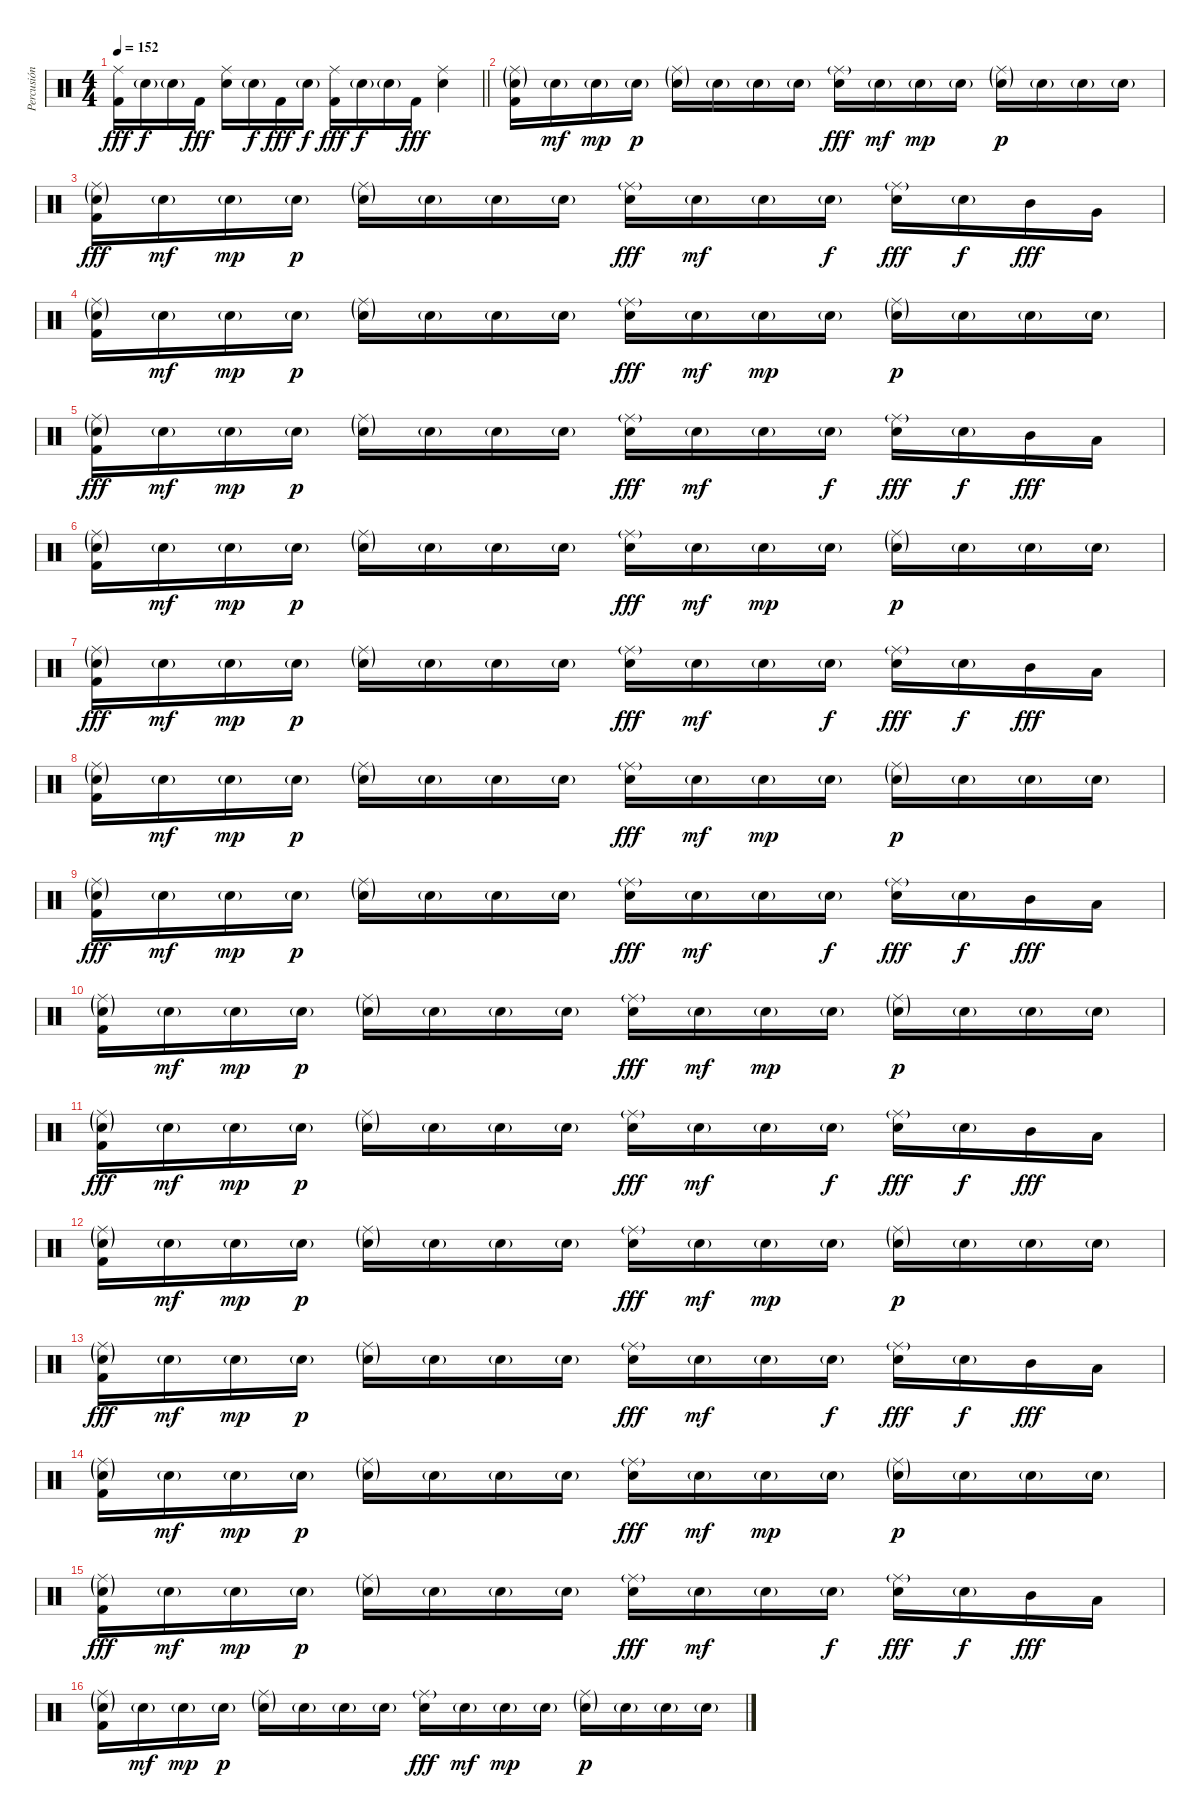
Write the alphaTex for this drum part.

\track ("Percusión" "Percusión") {instrument percussion}
\staff {score}
\articulation defaults
\ts (4 4)
\tempo 152
\clef neutral
\barLineRight lightlight
\ks c
("Ride (middle)" "Kick (hit) 2").16{dy fff} "Snare (hit) 2"{g}.16{dy f} "Snare (hit) 2"{g}.16 "Kick (hit) 2".16{dy fff} ("Ride (middle)" "Snare (hit) 2").16 "Snare (hit) 2"{g}.16{dy f} "Kick (hit) 2".16{dy fff} "Snare (hit) 2"{g}.16{dy f} ("Ride (middle)" "Kick (hit) 2").16{dy fff} "Snare (hit) 2"{g}.16{dy f} "Snare (hit) 2"{g}.16 "Kick (hit) 2".16{dy fff} ("Ride (middle)" "Snare (hit) 2").4 |
("Ride (middle)"{g} "Snare (hit) 2"{g} "Kick (hit) 2").16 "Snare (hit) 2"{g}.16{dy mf} "Snare (hit) 2"{g}.16{dy mp} "Snare (hit) 2"{g}.16{dy p} ("Ride (middle)"{g} "Snare (hit) 2"{g}).16 "Snare (hit) 2"{g}.16 "Snare (hit) 2"{g}.16 "Snare (hit) 2"{g}.16 ("Ride (middle)"{g} "Snare (hit) 2").16{dy fff} "Snare (hit) 2"{g}.16{dy mf} "Snare (hit) 2"{g}.16{dy mp} "Snare (hit) 2"{g}.16 ("Ride (middle)"{g} "Snare (hit) 2"{g}).16{dy p} "Snare (hit) 2"{g}.16 "Snare (hit) 2"{g}.16 "Snare (hit) 2"{g}.16 |
("Ride (middle)"{g} "Snare (hit) 2"{g} "Kick (hit) 2").16{dy fff} "Snare (hit) 2"{g}.16{dy mf} "Snare (hit) 2"{g}.16{dy mp} "Snare (hit) 2"{g}.16{dy p} ("Ride (middle)"{g} "Snare (hit) 2"{g}).16 "Snare (hit) 2"{g}.16 "Snare (hit) 2"{g}.16 "Snare (hit) 2"{g}.16 ("Ride (middle)"{g} "Snare (hit) 2").16{dy fff} "Snare (hit) 2"{g}.16{dy mf} "Snare (hit) 2"{g}.16 "Snare (hit) 2"{g}.16{dy f} ("Ride (middle)"{g} "Snare (hit) 2").16{dy fff} "Snare (hit) 2"{g}.16{dy f} "Mid Tom (hit)".16{dy fff} "Very Low Tom (hit)".16 |
("Ride (middle)"{g} "Snare (hit) 2"{g} "Kick (hit) 2").16 "Snare (hit) 2"{g}.16{dy mf} "Snare (hit) 2"{g}.16{dy mp} "Snare (hit) 2"{g}.16{dy p} ("Ride (middle)"{g} "Snare (hit) 2"{g}).16 "Snare (hit) 2"{g}.16 "Snare (hit) 2"{g}.16 "Snare (hit) 2"{g}.16 ("Ride (middle)"{g} "Snare (hit) 2").16{dy fff} "Snare (hit) 2"{g}.16{dy mf} "Snare (hit) 2"{g}.16{dy mp} "Snare (hit) 2"{g}.16 ("Ride (middle)"{g} "Snare (hit) 2"{g}).16{dy p} "Snare (hit) 2"{g}.16 "Snare (hit) 2"{g}.16 "Snare (hit) 2"{g}.16 |
("Ride (middle)"{g} "Snare (hit) 2"{g} "Kick (hit) 2").16{dy fff} "Snare (hit) 2"{g}.16{dy mf} "Snare (hit) 2"{g}.16{dy mp} "Snare (hit) 2"{g}.16{dy p} ("Ride (middle)"{g} "Snare (hit) 2"{g}).16 "Snare (hit) 2"{g}.16 "Snare (hit) 2"{g}.16 "Snare (hit) 2"{g}.16 ("Ride (middle)"{g} "Snare (hit) 2").16{dy fff} "Snare (hit) 2"{g}.16{dy mf} "Snare (hit) 2"{g}.16 "Snare (hit) 2"{g}.16{dy f} ("Ride (middle)"{g} "Snare (hit) 2").16{dy fff} "Snare (hit) 2"{g}.16{dy f} "Mid Tom (hit)".16{dy fff} "Low Tom (hit)".16 |
("Ride (middle)"{g} "Snare (hit) 2"{g} "Kick (hit) 2").16 "Snare (hit) 2"{g}.16{dy mf} "Snare (hit) 2"{g}.16{dy mp} "Snare (hit) 2"{g}.16{dy p} ("Ride (middle)"{g} "Snare (hit) 2"{g}).16 "Snare (hit) 2"{g}.16 "Snare (hit) 2"{g}.16 "Snare (hit) 2"{g}.16 ("Ride (middle)"{g} "Snare (hit) 2").16{dy fff} "Snare (hit) 2"{g}.16{dy mf} "Snare (hit) 2"{g}.16{dy mp} "Snare (hit) 2"{g}.16 ("Ride (middle)"{g} "Snare (hit) 2"{g}).16{dy p} "Snare (hit) 2"{g}.16 "Snare (hit) 2"{g}.16 "Snare (hit) 2"{g}.16 |
("Ride (middle)"{g} "Snare (hit) 2"{g} "Kick (hit) 2").16{dy fff} "Snare (hit) 2"{g}.16{dy mf} "Snare (hit) 2"{g}.16{dy mp} "Snare (hit) 2"{g}.16{dy p} ("Ride (middle)"{g} "Snare (hit) 2"{g}).16 "Snare (hit) 2"{g}.16 "Snare (hit) 2"{g}.16 "Snare (hit) 2"{g}.16 ("Ride (middle)"{g} "Snare (hit) 2").16{dy fff} "Snare (hit) 2"{g}.16{dy mf} "Snare (hit) 2"{g}.16 "Snare (hit) 2"{g}.16{dy f} ("Ride (middle)"{g} "Snare (hit) 2").16{dy fff} "Snare (hit) 2"{g}.16{dy f} "Mid Tom (hit)".16{dy fff} "Low Tom (hit)".16 |
("Ride (middle)"{g} "Snare (hit) 2"{g} "Kick (hit) 2").16 "Snare (hit) 2"{g}.16{dy mf} "Snare (hit) 2"{g}.16{dy mp} "Snare (hit) 2"{g}.16{dy p} ("Ride (middle)"{g} "Snare (hit) 2"{g}).16 "Snare (hit) 2"{g}.16 "Snare (hit) 2"{g}.16 "Snare (hit) 2"{g}.16 ("Ride (middle)"{g} "Snare (hit) 2").16{dy fff} "Snare (hit) 2"{g}.16{dy mf} "Snare (hit) 2"{g}.16{dy mp} "Snare (hit) 2"{g}.16 ("Ride (middle)"{g} "Snare (hit) 2"{g}).16{dy p} "Snare (hit) 2"{g}.16 "Snare (hit) 2"{g}.16 "Snare (hit) 2"{g}.16 |
("Ride (middle)"{g} "Snare (hit) 2"{g} "Kick (hit) 2").16{dy fff} "Snare (hit) 2"{g}.16{dy mf} "Snare (hit) 2"{g}.16{dy mp} "Snare (hit) 2"{g}.16{dy p} ("Ride (middle)"{g} "Snare (hit) 2"{g}).16 "Snare (hit) 2"{g}.16 "Snare (hit) 2"{g}.16 "Snare (hit) 2"{g}.16 ("Ride (middle)"{g} "Snare (hit) 2").16{dy fff} "Snare (hit) 2"{g}.16{dy mf} "Snare (hit) 2"{g}.16 "Snare (hit) 2"{g}.16{dy f} ("Ride (middle)"{g} "Snare (hit) 2").16{dy fff} "Snare (hit) 2"{g}.16{dy f} "Mid Tom (hit)".16{dy fff} "Low Tom (hit)".16 |
("Ride (middle)"{g} "Snare (hit) 2"{g} "Kick (hit) 2").16 "Snare (hit) 2"{g}.16{dy mf} "Snare (hit) 2"{g}.16{dy mp} "Snare (hit) 2"{g}.16{dy p} ("Ride (middle)"{g} "Snare (hit) 2"{g}).16 "Snare (hit) 2"{g}.16 "Snare (hit) 2"{g}.16 "Snare (hit) 2"{g}.16 ("Ride (middle)"{g} "Snare (hit) 2").16{dy fff} "Snare (hit) 2"{g}.16{dy mf} "Snare (hit) 2"{g}.16{dy mp} "Snare (hit) 2"{g}.16 ("Ride (middle)"{g} "Snare (hit) 2"{g}).16{dy p} "Snare (hit) 2"{g}.16 "Snare (hit) 2"{g}.16 "Snare (hit) 2"{g}.16 |
("Ride (middle)"{g} "Snare (hit) 2"{g} "Kick (hit) 2").16{dy fff} "Snare (hit) 2"{g}.16{dy mf} "Snare (hit) 2"{g}.16{dy mp} "Snare (hit) 2"{g}.16{dy p} ("Ride (middle)"{g} "Snare (hit) 2"{g}).16 "Snare (hit) 2"{g}.16 "Snare (hit) 2"{g}.16 "Snare (hit) 2"{g}.16 ("Ride (middle)"{g} "Snare (hit) 2").16{dy fff} "Snare (hit) 2"{g}.16{dy mf} "Snare (hit) 2"{g}.16 "Snare (hit) 2"{g}.16{dy f} ("Ride (middle)"{g} "Snare (hit) 2").16{dy fff} "Snare (hit) 2"{g}.16{dy f} "Mid Tom (hit)".16{dy fff} "Low Tom (hit)".16 |
("Ride (middle)"{g} "Snare (hit) 2"{g} "Kick (hit) 2").16 "Snare (hit) 2"{g}.16{dy mf} "Snare (hit) 2"{g}.16{dy mp} "Snare (hit) 2"{g}.16{dy p} ("Ride (middle)"{g} "Snare (hit) 2"{g}).16 "Snare (hit) 2"{g}.16 "Snare (hit) 2"{g}.16 "Snare (hit) 2"{g}.16 ("Ride (middle)"{g} "Snare (hit) 2").16{dy fff} "Snare (hit) 2"{g}.16{dy mf} "Snare (hit) 2"{g}.16{dy mp} "Snare (hit) 2"{g}.16 ("Ride (middle)"{g} "Snare (hit) 2"{g}).16{dy p} "Snare (hit) 2"{g}.16 "Snare (hit) 2"{g}.16 "Snare (hit) 2"{g}.16 |
("Ride (middle)"{g} "Snare (hit) 2"{g} "Kick (hit) 2").16{dy fff} "Snare (hit) 2"{g}.16{dy mf} "Snare (hit) 2"{g}.16{dy mp} "Snare (hit) 2"{g}.16{dy p} ("Ride (middle)"{g} "Snare (hit) 2"{g}).16 "Snare (hit) 2"{g}.16 "Snare (hit) 2"{g}.16 "Snare (hit) 2"{g}.16 ("Ride (middle)"{g} "Snare (hit) 2").16{dy fff} "Snare (hit) 2"{g}.16{dy mf} "Snare (hit) 2"{g}.16 "Snare (hit) 2"{g}.16{dy f} ("Ride (middle)"{g} "Snare (hit) 2").16{dy fff} "Snare (hit) 2"{g}.16{dy f} "Mid Tom (hit)".16{dy fff} "Low Tom (hit)".16 |
("Ride (middle)"{g} "Snare (hit) 2"{g} "Kick (hit) 2").16 "Snare (hit) 2"{g}.16{dy mf} "Snare (hit) 2"{g}.16{dy mp} "Snare (hit) 2"{g}.16{dy p} ("Ride (middle)"{g} "Snare (hit) 2"{g}).16 "Snare (hit) 2"{g}.16 "Snare (hit) 2"{g}.16 "Snare (hit) 2"{g}.16 ("Ride (middle)"{g} "Snare (hit) 2").16{dy fff} "Snare (hit) 2"{g}.16{dy mf} "Snare (hit) 2"{g}.16{dy mp} "Snare (hit) 2"{g}.16 ("Ride (middle)"{g} "Snare (hit) 2"{g}).16{dy p} "Snare (hit) 2"{g}.16 "Snare (hit) 2"{g}.16 "Snare (hit) 2"{g}.16 |
("Ride (middle)"{g} "Snare (hit) 2"{g} "Kick (hit) 2").16{dy fff} "Snare (hit) 2"{g}.16{dy mf} "Snare (hit) 2"{g}.16{dy mp} "Snare (hit) 2"{g}.16{dy p} ("Ride (middle)"{g} "Snare (hit) 2"{g}).16 "Snare (hit) 2"{g}.16 "Snare (hit) 2"{g}.16 "Snare (hit) 2"{g}.16 ("Ride (middle)"{g} "Snare (hit) 2").16{dy fff} "Snare (hit) 2"{g}.16{dy mf} "Snare (hit) 2"{g}.16 "Snare (hit) 2"{g}.16{dy f} ("Ride (middle)"{g} "Snare (hit) 2").16{dy fff} "Snare (hit) 2"{g}.16{dy f} "Mid Tom (hit)".16{dy fff} "Low Tom (hit)".16 |
("Ride (middle)"{g} "Snare (hit) 2"{g} "Kick (hit) 2").16 "Snare (hit) 2"{g}.16{dy mf} "Snare (hit) 2"{g}.16{dy mp} "Snare (hit) 2"{g}.16{dy p} ("Ride (middle)"{g} "Snare (hit) 2"{g}).16 "Snare (hit) 2"{g}.16 "Snare (hit) 2"{g}.16 "Snare (hit) 2"{g}.16 ("Ride (middle)"{g} "Snare (hit) 2").16{dy fff} "Snare (hit) 2"{g}.16{dy mf} "Snare (hit) 2"{g}.16{dy mp} "Snare (hit) 2"{g}.16 ("Ride (middle)"{g} "Snare (hit) 2"{g}).16{dy p} "Snare (hit) 2"{g}.16 "Snare (hit) 2"{g}.16 "Snare (hit) 2"{g}.16
